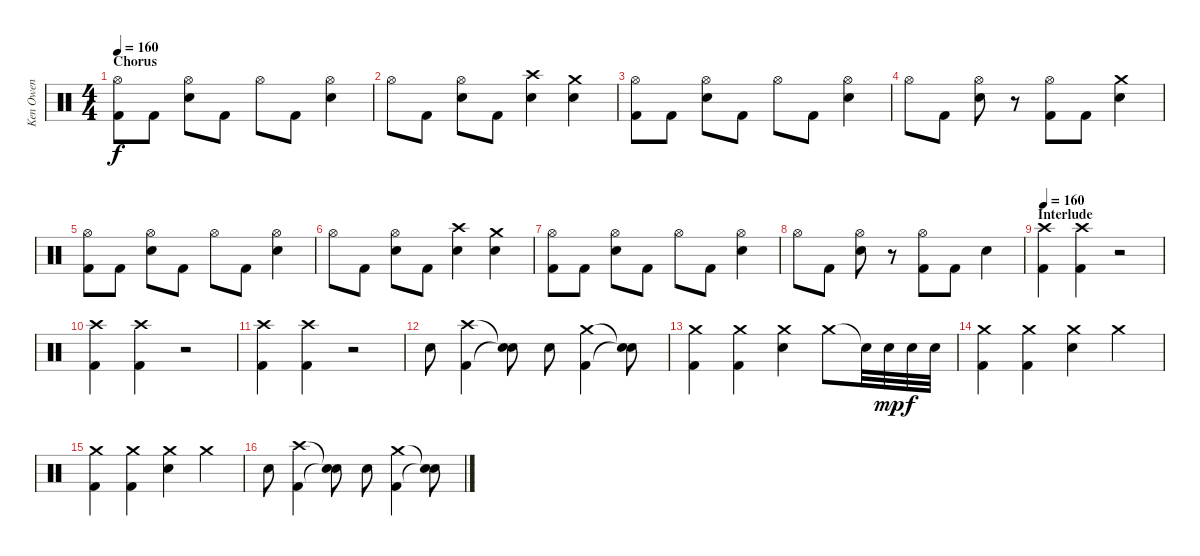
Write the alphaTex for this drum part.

\track ("Ken Owen" "Ken Owen") {instrument percussion}
\staff {score}
\articulation defaults
\ts (4 4)
\section ("" "Chorus")
\tempo 160
\clef neutral
\ks c
("Hi-Hat (open)" "Kick (hit) 2").8{dy f} "Kick (hit) 2".8 ("Hi-Hat (open)" "Electric Snare (hit)").8 "Kick (hit) 2".8 "Hi-Hat (open)".8 "Kick (hit) 2".8 ("Hi-Hat (open)" "Electric Snare (hit)").4 |
"Hi-Hat (open)".8 "Kick (hit) 2".8 ("Hi-Hat (open)" "Electric Snare (hit)").8 "Kick (hit) 2".8 ("Crash high (hit)" "Electric Snare (hit)").4 ("Crash medium (hit)" "Electric Snare (hit)").4 |
("Hi-Hat (open)" "Kick (hit) 2").8 "Kick (hit) 2".8 ("Hi-Hat (open)" "Electric Snare (hit)").8 "Kick (hit) 2".8 "Hi-Hat (open)".8 "Kick (hit) 2".8 ("Hi-Hat (open)" "Electric Snare (hit)").4 |
"Hi-Hat (open)".8 "Kick (hit) 2".8 ("Hi-Hat (open)" "Electric Snare (hit)").8 r.8 ("Hi-Hat (open)" "Kick (hit) 2").8 "Kick (hit) 2".8 ("Crash medium (hit)" "Electric Snare (hit)").4 |
("Hi-Hat (open)" "Kick (hit) 2").8 "Kick (hit) 2".8 ("Hi-Hat (open)" "Electric Snare (hit)").8 "Kick (hit) 2".8 "Hi-Hat (open)".8 "Kick (hit) 2".8 ("Hi-Hat (open)" "Electric Snare (hit)").4 |
"Hi-Hat (open)".8 "Kick (hit) 2".8 ("Hi-Hat (open)" "Electric Snare (hit)").8 "Kick (hit) 2".8 ("Crash high (hit)" "Electric Snare (hit)").4 ("Crash medium (hit)" "Electric Snare (hit)").4 |
("Hi-Hat (open)" "Kick (hit) 2").8 "Kick (hit) 2".8 ("Hi-Hat (open)" "Electric Snare (hit)").8 "Kick (hit) 2".8 "Hi-Hat (open)".8 "Kick (hit) 2".8 ("Hi-Hat (open)" "Electric Snare (hit)").4 |
"Hi-Hat (open)".8 "Kick (hit) 2".8 ("Hi-Hat (open)" "Electric Snare (hit)").8 r.8 ("Hi-Hat (open)" "Kick (hit) 2").8 "Kick (hit) 2".8 "Electric Snare (hit)".4 |
\section ("" "Interlude")
\tempo 160
("Crash high (hit)" "Kick (hit) 2").4 ("Crash high (hit)" "Kick (hit) 2").4 r.2 |
("Crash high (hit)" "Kick (hit) 2").4 ("Crash high (hit)" "Kick (hit) 2").4 r.2 |
("Crash high (hit)" "Kick (hit) 2").4 ("Crash high (hit)" "Kick (hit) 2").4 r.2 |
"Electric Snare (hit)".8 ("Crash high (hit)" "Kick (hit) 2").4 ("Snare (hit)"{t} "Snare (hit)"{t}).8 "Electric Snare (hit)".8 ("Crash medium (hit)" "Kick (hit) 2").4 ("Snare (hit)"{t} "Snare (hit)"{t}).8 |
("Crash medium (hit)" "Kick (hit) 2").4 ("Crash medium (hit)" "Kick (hit) 2").4 ("Crash medium (hit)" "Electric Snare (hit)").4 "Crash medium (hit)".8 "Snare (hit)"{t}.32 "Electric Snare (hit)".32{dy mp} "Electric Snare (hit)".32{dy f} "Electric Snare (hit)".32 |
("Crash medium (hit)" "Kick (hit) 2").4 ("Crash medium (hit)" "Kick (hit) 2").4 ("Crash medium (hit)" "Electric Snare (hit)").4 "Crash medium (hit)".4 |
("Crash medium (hit)" "Kick (hit) 2").4 ("Crash medium (hit)" "Kick (hit) 2").4 ("Crash medium (hit)" "Electric Snare (hit)").4 "Crash medium (hit)".4 |
"Electric Snare (hit)".8 ("Crash high (hit)" "Kick (hit) 2").4 ("Snare (hit)"{t} "Snare (hit)"{t}).8 "Electric Snare (hit)".8 ("Crash medium (hit)" "Kick (hit) 2").4 ("Snare (hit)"{t} "Snare (hit)"{t}).8
